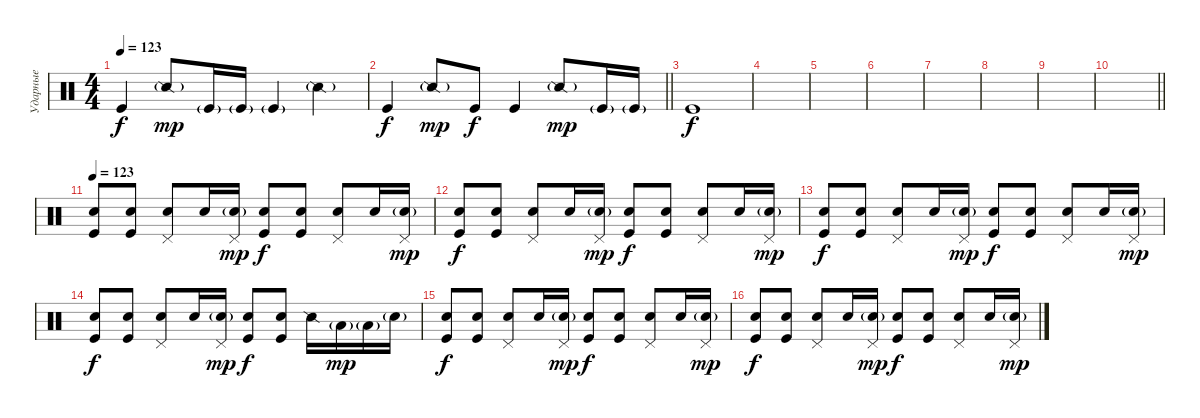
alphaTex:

\track ("Ударные" "Ударные") {instrument percussion}
\staff {score}
\articulation defaults
\ts (4 4)
\tempo 123
\clef neutral
\ks c "Kick (hit)".4{dy f} "Snare (side stick) 2"{g}.8{dy mp} "Kick (hit)"{g}.16 "Kick (hit)"{g}.16 "Kick (hit)"{g}.4 "Snare (side stick) 2"{g}.4
|
\barLineRight lightlight "Kick (hit)".4{dy f} "Snare (side stick) 2"{g}.8{dy mp} "Kick (hit)".8{dy f} "Kick (hit)".4 "Snare (side stick) 2"{g}.8{dy mp} "Kick (hit)"{g}.16 "Kick (hit)"{g}.16
|
"Kick (hit)".1{dy f} |
|
|
|
|
|
|
\barLineRight lightlight
|
\tempo 123
("Hand Clap (hit)" "Kick (hit)").8 ("Hand Clap (hit)" "Kick (hit)").8 ("Pedal Hi-Hat (hit)" "Snare (hit) 2").8 "Hand Clap (hit)".16 ("Pedal Hi-Hat (hit)" "Snare (hit) 2"{g}).16{dy mp} ("Hand Clap (hit)" "Kick (hit)").8{dy f} ("Hand Clap (hit)" "Kick (hit)").8 ("Pedal Hi-Hat (hit)" "Snare (hit) 2").8 "Hand Clap (hit)".16 ("Pedal Hi-Hat (hit)" "Snare (hit) 2"{g}).16{dy mp} |
("Hand Clap (hit)" "Kick (hit)").8{dy f} ("Hand Clap (hit)" "Kick (hit)").8 ("Pedal Hi-Hat (hit)" "Snare (hit) 2").8 "Hand Clap (hit)".16 ("Pedal Hi-Hat (hit)" "Snare (hit) 2"{g}).16{dy mp} ("Hand Clap (hit)" "Kick (hit)").8{dy f} ("Hand Clap (hit)" "Kick (hit)").8 ("Pedal Hi-Hat (hit)" "Snare (hit) 2").8 "Hand Clap (hit)".16 ("Pedal Hi-Hat (hit)" "Snare (hit) 2"{g}).16{dy mp} |
("Hand Clap (hit)" "Kick (hit)").8{dy f} ("Hand Clap (hit)" "Kick (hit)").8 ("Pedal Hi-Hat (hit)" "Snare (hit) 2").8 "Hand Clap (hit)".16 ("Pedal Hi-Hat (hit)" "Snare (hit) 2"{g}).16{dy mp} ("Hand Clap (hit)" "Kick (hit)").8{dy f} ("Hand Clap (hit)" "Kick (hit)").8 ("Pedal Hi-Hat (hit)" "Snare (hit) 2").8 "Hand Clap (hit)".16 ("Pedal Hi-Hat (hit)" "Snare (hit) 2"{g}).16{dy mp} |
("Hand Clap (hit)" "Kick (hit)").8{dy f} ("Hand Clap (hit)" "Kick (hit)").8 ("Pedal Hi-Hat (hit)" "Snare (hit) 2").8 "Hand Clap (hit)".16 ("Pedal Hi-Hat (hit)" "Snare (hit) 2"{g}).16{dy mp} ("Hand Clap (hit)" "Kick (hit)").8{dy f} ("Hand Clap (hit)" "Kick (hit)").8 "Snare (side stick) 2".16 "Low Tom (hit)"{g}.16{dy mp} "Low Tom (hit)"{g}.16 "Snare (hit) 2"{g}.16 |
("Hand Clap (hit)" "Kick (hit)").8{dy f} ("Hand Clap (hit)" "Kick (hit)").8 ("Pedal Hi-Hat (hit)" "Snare (hit) 2").8 "Hand Clap (hit)".16 ("Pedal Hi-Hat (hit)" "Snare (hit) 2"{g}).16{dy mp} ("Hand Clap (hit)" "Kick (hit)").8{dy f} ("Hand Clap (hit)" "Kick (hit)").8 ("Pedal Hi-Hat (hit)" "Snare (hit) 2").8 "Hand Clap (hit)".16 ("Pedal Hi-Hat (hit)" "Snare (hit) 2"{g}).16{dy mp} |
("Hand Clap (hit)" "Kick (hit)").8{dy f} ("Hand Clap (hit)" "Kick (hit)").8 ("Pedal Hi-Hat (hit)" "Snare (hit) 2").8 "Hand Clap (hit)".16 ("Pedal Hi-Hat (hit)" "Snare (hit) 2"{g}).16{dy mp} ("Hand Clap (hit)" "Kick (hit)").8{dy f} ("Hand Clap (hit)" "Kick (hit)").8 ("Pedal Hi-Hat (hit)" "Snare (hit) 2").8 "Hand Clap (hit)".16 ("Pedal Hi-Hat (hit)" "Snare (hit) 2"{g}).16{dy mp}
